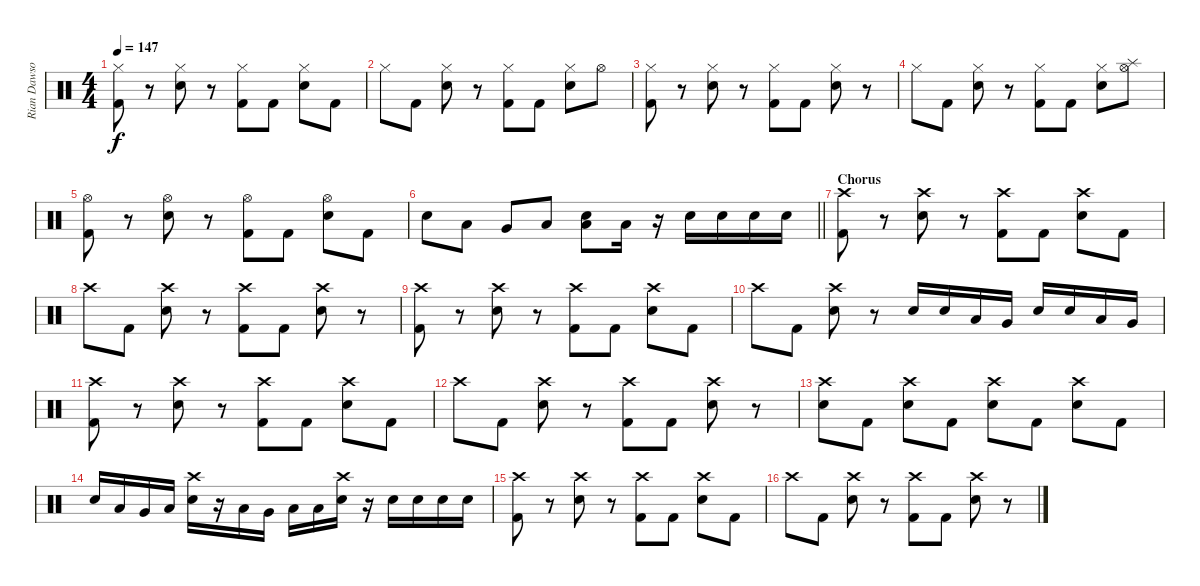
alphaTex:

\track ("Rian Dawson (Drums)" "Rian Dawso") {instrument percussion}
\staff {score}
\articulation defaults
\ts (4 4)
\tempo 147
\clef neutral
\ks c
("Hi-Hat (closed)" "Kick (hit) 2").8{dy f} r.8 ("Electric Snare (hit)" "Hi-Hat (closed)").8 r.8 ("Hi-Hat (closed)" "Kick (hit) 2").8 "Kick (hit) 2".8 ("Electric Snare (hit)" "Hi-Hat (closed)").8 "Kick (hit) 2".8 |
"Hi-Hat (closed)".8 "Kick (hit) 2".8 ("Electric Snare (hit)" "Hi-Hat (closed)").8 r.8 ("Hi-Hat (closed)" "Kick (hit) 2").8 "Kick (hit) 2".8 ("Electric Snare (hit)" "Hi-Hat (closed)").8 "Hi-Hat (open)".8 |
("Hi-Hat (closed)" "Kick (hit) 2").8 r.8 ("Electric Snare (hit)" "Hi-Hat (closed)").8 r.8 ("Hi-Hat (closed)" "Kick (hit) 2").8 "Kick (hit) 2".8 ("Electric Snare (hit)" "Hi-Hat (closed)").8 r.8 |
"Hi-Hat (closed)".8 "Kick (hit) 2".8 ("Electric Snare (hit)" "Hi-Hat (closed)").8 r.8 ("Hi-Hat (closed)" "Kick (hit) 2").8 "Kick (hit) 2".8 ("Electric Snare (hit)" "Hi-Hat (closed)").8 ("Hi-Hat (open)" "Splash (hit)").8 |
("Hi-Hat (open)" "Kick (hit) 2").8 r.8 ("Electric Snare (hit)" "Hi-Hat (open)").8 r.8 ("Hi-Hat (open)" "Kick (hit) 2").8 "Kick (hit) 2".8 ("Electric Snare (hit)" "Hi-Hat (open)").8 "Kick (hit) 2".8 |
\barLineRight lightlight "Electric Snare (hit)".8 "Low Tom (hit)".8 "Very Low Tom (hit)".8 "Low Floor Tom (hit)".8
("Electric Snare (hit)" "Low Tom (hit)").8 "Low Floor Tom (hit)".16 r.16 "Electric Snare (hit)".16 "Electric Snare (hit)".16 "Electric Snare (hit)".16 "Electric Snare (hit)".16 |
\section ("" "Chorus")
("Crash high (hit)" "Kick (hit) 2").8 r.8 ("Crash high (hit)" "Electric Snare (hit)").8 r.8 ("Crash high (hit)" "Kick (hit) 2").8 "Kick (hit) 2".8 ("Crash high (hit)" "Electric Snare (hit)").8 "Kick (hit) 2".8 |
"Crash high (hit)".8 "Kick (hit) 2".8 ("Crash high (hit)" "Electric Snare (hit)").8 r.8 ("Crash high (hit)" "Kick (hit) 2").8 "Kick (hit) 2".8 ("Crash high (hit)" "Electric Snare (hit)").8 r.8 |
("Crash high (hit)" "Kick (hit) 2").8 r.8 ("Crash high (hit)" "Electric Snare (hit)").8 r.8 ("Crash high (hit)" "Kick (hit) 2").8 "Kick (hit) 2".8 ("Crash high (hit)" "Electric Snare (hit)").8 "Kick (hit) 2".8 |
"Crash high (hit)".8 "Kick (hit) 2".8 ("Crash high (hit)" "Electric Snare (hit)").8 r.8 "Electric Snare (hit)".16 "Electric Snare (hit)".16 "Low Tom (hit)".16 "Very Low Tom (hit)".16 "Electric Snare (hit)".16 "Electric Snare (hit)".16 "Low Tom (hit)".16 "Very Low Tom (hit)".16 |
("Crash high (hit)" "Kick (hit) 2").8 r.8 ("Crash high (hit)" "Electric Snare (hit)").8 r.8 ("Crash high (hit)" "Kick (hit) 2").8 "Kick (hit) 2".8 ("Crash high (hit)" "Electric Snare (hit)").8 "Kick (hit) 2".8 |
"Crash high (hit)".8 "Kick (hit) 2".8 ("Crash high (hit)" "Electric Snare (hit)").8 r.8 ("Crash high (hit)" "Kick (hit) 2").8 "Kick (hit) 2".8 ("Crash high (hit)" "Electric Snare (hit)").8 r.8 |
("Crash high (hit)" "Electric Snare (hit)").8 "Kick (hit) 2".8 ("Crash high (hit)" "Electric Snare (hit)").8 "Kick (hit) 2".8 ("Crash high (hit)" "Electric Snare (hit)").8 "Kick (hit) 2".8 ("Crash high (hit)" "Electric Snare (hit)").8 "Kick (hit) 2".8 |
"Electric Snare (hit)".16 "Low Tom (hit)".16 "Very Low Tom (hit)".16 "Low Floor Tom (hit)".16 ("Crash high (hit)" "Electric Snare (hit)").16 r.16 "Low Tom (hit)".16 "Very Low Tom (hit)".16 "Low Floor Tom (hit)".16 "Low Floor Tom (hit)".16 ("Crash high (hit)" "Electric Snare (hit)").16 r.16 "Electric Snare (hit)".16 "Electric Snare (hit)".16 "Electric Snare (hit)".16 "Electric Snare (hit)".16 |
("Crash high (hit)" "Kick (hit) 2").8 r.8 ("Crash high (hit)" "Electric Snare (hit)").8 r.8 ("Crash high (hit)" "Kick (hit) 2").8 "Kick (hit) 2".8 ("Crash high (hit)" "Electric Snare (hit)").8 "Kick (hit) 2".8 |
"Crash high (hit)".8 "Kick (hit) 2".8 ("Crash high (hit)" "Electric Snare (hit)").8 r.8 ("Crash high (hit)" "Kick (hit) 2").8 "Kick (hit) 2".8 ("Crash high (hit)" "Electric Snare (hit)").8 r.8
